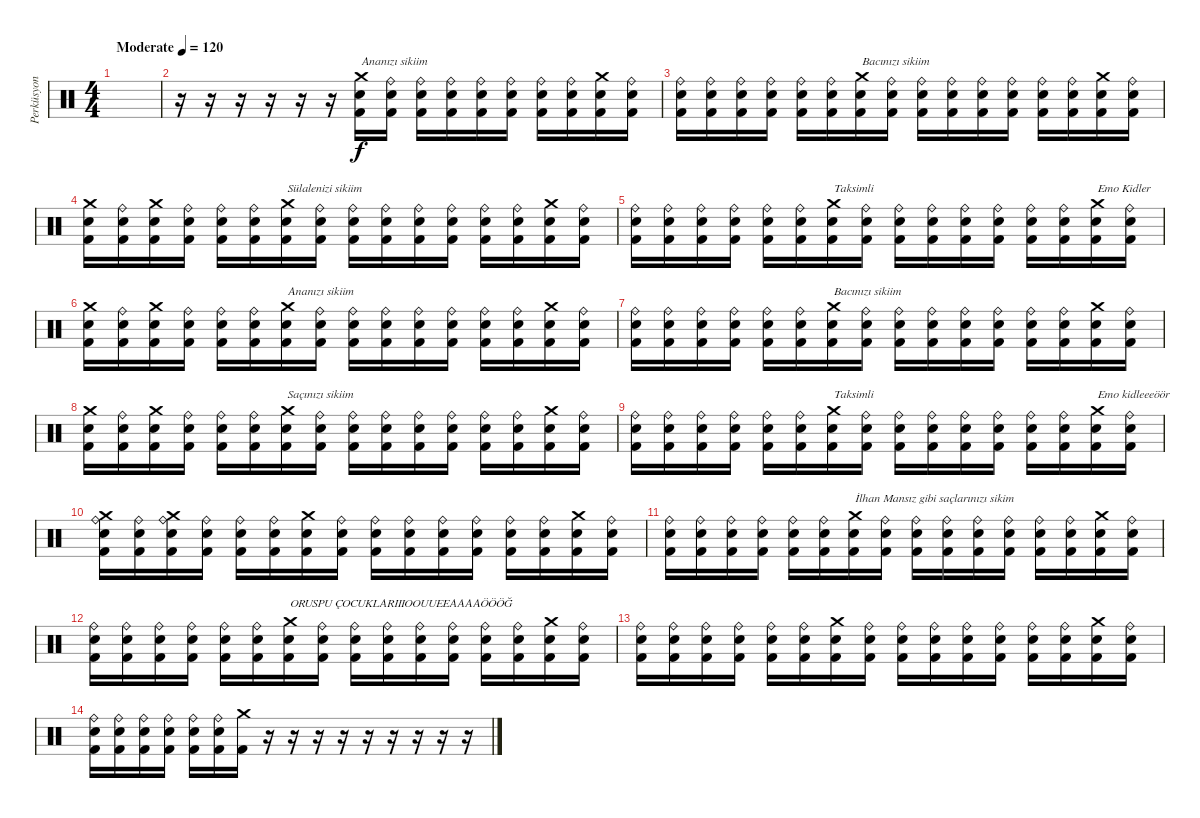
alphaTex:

\track ("Perküsyon" "Perküsyon") {instrument percussion}
\staff {score}
\articulation defaults
\ts (4 4)
\tempo (120 "Moderate")
\clef neutral
\ks c
|
r.16 r.16 r.16 r.16 r.16 r.16 ("Crash medium (hit)" "Electric Snare (hit)" "Kick (hit) 2").16{txt "Ananızı sikiim"} ("Ride (bell)" "Electric Snare (hit)" "Kick (hit) 2").16 ("Ride (bell)" "Electric Snare (hit)" "Kick (hit) 2").16 ("Ride (bell)" "Electric Snare (hit)" "Kick (hit) 2").16 ("Ride (bell)" "Electric Snare (hit)" "Kick (hit) 2").16 ("Ride (bell)" "Electric Snare (hit)" "Kick (hit) 2").16 ("Ride (bell)" "Electric Snare (hit)" "Kick (hit) 2").16 ("Ride (bell)" "Electric Snare (hit)" "Kick (hit) 2").16 ("Crash medium (hit)" "Electric Snare (hit)" "Kick (hit) 2").16 ("Ride (bell)" "Electric Snare (hit)" "Kick (hit) 2").16 |
("Ride (bell)" "Electric Snare (hit)" "Kick (hit) 2").16 ("Ride (bell)" "Electric Snare (hit)" "Kick (hit) 2").16 ("Ride (bell)" "Electric Snare (hit)" "Kick (hit) 2").16 ("Ride (bell)" "Electric Snare (hit)" "Kick (hit) 2").16 ("Ride (bell)" "Electric Snare (hit)" "Kick (hit) 2").16 ("Ride (bell)" "Electric Snare (hit)" "Kick (hit) 2").16 ("Crash medium (hit)" "Electric Snare (hit)" "Kick (hit) 2").16{txt "Bacınızı sikiim"} ("Ride (bell)" "Electric Snare (hit)" "Kick (hit) 2").16 ("Ride (bell)" "Electric Snare (hit)" "Kick (hit) 2").16 ("Ride (bell)" "Electric Snare (hit)" "Kick (hit) 2").16 ("Ride (bell)" "Electric Snare (hit)" "Kick (hit) 2").16 ("Ride (bell)" "Electric Snare (hit)" "Kick (hit) 2").16 ("Ride (bell)" "Electric Snare (hit)" "Kick (hit) 2").16 ("Ride (bell)" "Electric Snare (hit)" "Kick (hit) 2").16 ("Crash medium (hit)" "Electric Snare (hit)" "Kick (hit) 2").16 ("Ride (bell)" "Electric Snare (hit)" "Kick (hit) 2").16 |
("Crash medium (hit)" "Electric Snare (hit)" "Kick (hit) 2").16 ("Ride (bell)" "Electric Snare (hit)" "Kick (hit) 2").16 ("Crash medium (hit)" "Electric Snare (hit)" "Kick (hit) 2").16 ("Ride (bell)" "Electric Snare (hit)" "Kick (hit) 2").16 ("Ride (bell)" "Electric Snare (hit)" "Kick (hit) 2").16 ("Ride (bell)" "Electric Snare (hit)" "Kick (hit) 2").16 ("Crash medium (hit)" "Electric Snare (hit)" "Kick (hit) 2").16{txt "Sülalenizi sikiim"} ("Ride (bell)" "Electric Snare (hit)" "Kick (hit) 2").16 ("Ride (bell)" "Electric Snare (hit)" "Kick (hit) 2").16 ("Ride (bell)" "Electric Snare (hit)" "Kick (hit) 2").16 ("Ride (bell)" "Electric Snare (hit)" "Kick (hit) 2").16 ("Ride (bell)" "Electric Snare (hit)" "Kick (hit) 2").16 ("Ride (bell)" "Electric Snare (hit)" "Kick (hit) 2").16 ("Ride (bell)" "Electric Snare (hit)" "Kick (hit) 2").16 ("Crash medium (hit)" "Electric Snare (hit)" "Kick (hit) 2").16 ("Ride (bell)" "Electric Snare (hit)" "Kick (hit) 2").16 |
("Ride (bell)" "Electric Snare (hit)" "Kick (hit) 2").16 ("Ride (bell)" "Electric Snare (hit)" "Kick (hit) 2").16 ("Ride (bell)" "Electric Snare (hit)" "Kick (hit) 2").16 ("Ride (bell)" "Electric Snare (hit)" "Kick (hit) 2").16 ("Ride (bell)" "Electric Snare (hit)" "Kick (hit) 2").16 ("Ride (bell)" "Electric Snare (hit)" "Kick (hit) 2").16 ("Crash medium (hit)" "Electric Snare (hit)" "Kick (hit) 2").16{txt "Taksimli"} ("Ride (bell)" "Electric Snare (hit)" "Kick (hit) 2").16 ("Ride (bell)" "Electric Snare (hit)" "Kick (hit) 2").16 ("Ride (bell)" "Electric Snare (hit)" "Kick (hit) 2").16 ("Ride (bell)" "Electric Snare (hit)" "Kick (hit) 2").16 ("Ride (bell)" "Electric Snare (hit)" "Kick (hit) 2").16 ("Ride (bell)" "Electric Snare (hit)" "Kick (hit) 2").16 ("Ride (bell)" "Electric Snare (hit)" "Kick (hit) 2").16 ("Crash medium (hit)" "Electric Snare (hit)" "Kick (hit) 2").16{txt "Emo Kidler"} ("Ride (bell)" "Electric Snare (hit)" "Kick (hit) 2").16 |
("Crash medium (hit)" "Electric Snare (hit)" "Kick (hit) 2").16 ("Ride (bell)" "Electric Snare (hit)" "Kick (hit) 2").16 ("Crash medium (hit)" "Electric Snare (hit)" "Kick (hit) 2").16 ("Ride (bell)" "Electric Snare (hit)" "Kick (hit) 2").16 ("Ride (bell)" "Electric Snare (hit)" "Kick (hit) 2").16 ("Ride (bell)" "Electric Snare (hit)" "Kick (hit) 2").16 ("Crash medium (hit)" "Electric Snare (hit)" "Kick (hit) 2").16{txt "Ananızı sikiim"} ("Ride (bell)" "Electric Snare (hit)" "Kick (hit) 2").16 ("Ride (bell)" "Electric Snare (hit)" "Kick (hit) 2").16 ("Ride (bell)" "Electric Snare (hit)" "Kick (hit) 2").16 ("Ride (bell)" "Electric Snare (hit)" "Kick (hit) 2").16 ("Ride (bell)" "Electric Snare (hit)" "Kick (hit) 2").16 ("Ride (bell)" "Electric Snare (hit)" "Kick (hit) 2").16 ("Ride (bell)" "Electric Snare (hit)" "Kick (hit) 2").16 ("Crash medium (hit)" "Electric Snare (hit)" "Kick (hit) 2").16 ("Ride (bell)" "Electric Snare (hit)" "Kick (hit) 2").16 |
("Ride (bell)" "Electric Snare (hit)" "Kick (hit) 2").16 ("Ride (bell)" "Electric Snare (hit)" "Kick (hit) 2").16 ("Ride (bell)" "Electric Snare (hit)" "Kick (hit) 2").16 ("Ride (bell)" "Electric Snare (hit)" "Kick (hit) 2").16 ("Ride (bell)" "Electric Snare (hit)" "Kick (hit) 2").16 ("Ride (bell)" "Electric Snare (hit)" "Kick (hit) 2").16 ("Crash medium (hit)" "Electric Snare (hit)" "Kick (hit) 2").16{txt "Bacınızı sikiim"} ("Ride (bell)" "Electric Snare (hit)" "Kick (hit) 2").16 ("Ride (bell)" "Electric Snare (hit)" "Kick (hit) 2").16 ("Ride (bell)" "Electric Snare (hit)" "Kick (hit) 2").16 ("Ride (bell)" "Electric Snare (hit)" "Kick (hit) 2").16 ("Ride (bell)" "Electric Snare (hit)" "Kick (hit) 2").16 ("Ride (bell)" "Electric Snare (hit)" "Kick (hit) 2").16 ("Ride (bell)" "Electric Snare (hit)" "Kick (hit) 2").16 ("Crash medium (hit)" "Electric Snare (hit)" "Kick (hit) 2").16 ("Ride (bell)" "Electric Snare (hit)" "Kick (hit) 2").16 |
("Crash medium (hit)" "Electric Snare (hit)" "Kick (hit) 2").16 ("Ride (bell)" "Electric Snare (hit)" "Kick (hit) 2").16 ("Crash medium (hit)" "Electric Snare (hit)" "Kick (hit) 2").16 ("Ride (bell)" "Electric Snare (hit)" "Kick (hit) 2").16 ("Ride (bell)" "Electric Snare (hit)" "Kick (hit) 2").16 ("Ride (bell)" "Electric Snare (hit)" "Kick (hit) 2").16 ("Crash medium (hit)" "Electric Snare (hit)" "Kick (hit) 2").16{txt "Saçınızı sikiim"} ("Ride (bell)" "Electric Snare (hit)" "Kick (hit) 2").16 ("Ride (bell)" "Electric Snare (hit)" "Kick (hit) 2").16 ("Ride (bell)" "Electric Snare (hit)" "Kick (hit) 2").16 ("Ride (bell)" "Electric Snare (hit)" "Kick (hit) 2").16 ("Ride (bell)" "Electric Snare (hit)" "Kick (hit) 2").16 ("Ride (bell)" "Electric Snare (hit)" "Kick (hit) 2").16 ("Ride (bell)" "Electric Snare (hit)" "Kick (hit) 2").16 ("Crash medium (hit)" "Electric Snare (hit)" "Kick (hit) 2").16 ("Ride (bell)" "Electric Snare (hit)" "Kick (hit) 2").16 |
("Ride (bell)" "Electric Snare (hit)" "Kick (hit) 2").16 ("Ride (bell)" "Electric Snare (hit)" "Kick (hit) 2").16 ("Ride (bell)" "Electric Snare (hit)" "Kick (hit) 2").16 ("Ride (bell)" "Electric Snare (hit)" "Kick (hit) 2").16 ("Ride (bell)" "Electric Snare (hit)" "Kick (hit) 2").16 ("Ride (bell)" "Electric Snare (hit)" "Kick (hit) 2").16 ("Crash medium (hit)" "Electric Snare (hit)" "Kick (hit) 2").16{txt "Taksimli"} ("Ride (bell)" "Electric Snare (hit)" "Kick (hit) 2").16 ("Ride (bell)" "Electric Snare (hit)" "Kick (hit) 2").16 ("Ride (bell)" "Electric Snare (hit)" "Kick (hit) 2").16 ("Ride (bell)" "Electric Snare (hit)" "Kick (hit) 2").16 ("Ride (bell)" "Electric Snare (hit)" "Kick (hit) 2").16 ("Ride (bell)" "Electric Snare (hit)" "Kick (hit) 2").16 ("Ride (bell)" "Electric Snare (hit)" "Kick (hit) 2").16 ("Crash medium (hit)" "Electric Snare (hit)" "Kick (hit) 2").16{txt "Emo kidleeeöör"} ("Ride (bell)" "Electric Snare (hit)" "Kick (hit) 2").16 |
("Crash medium (hit)" "Ride (bell)" "Electric Snare (hit)" "Kick (hit) 2").16 ("Ride (bell)" "Electric Snare (hit)" "Kick (hit) 2").16 ("Crash medium (hit)" "Ride (bell)" "Electric Snare (hit)" "Kick (hit) 2").16 ("Ride (bell)" "Electric Snare (hit)" "Kick (hit) 2").16 ("Ride (bell)" "Electric Snare (hit)" "Kick (hit) 2").16 ("Ride (bell)" "Electric Snare (hit)" "Kick (hit) 2").16 ("Crash medium (hit)" "Electric Snare (hit)" "Kick (hit) 2").16 ("Ride (bell)" "Electric Snare (hit)" "Kick (hit) 2").16 ("Ride (bell)" "Electric Snare (hit)" "Kick (hit) 2").16 ("Ride (bell)" "Electric Snare (hit)" "Kick (hit) 2").16 ("Ride (bell)" "Electric Snare (hit)" "Kick (hit) 2").16 ("Ride (bell)" "Electric Snare (hit)" "Kick (hit) 2").16 ("Ride (bell)" "Electric Snare (hit)" "Kick (hit) 2").16 ("Ride (bell)" "Electric Snare (hit)" "Kick (hit) 2").16 ("Crash medium (hit)" "Electric Snare (hit)" "Kick (hit) 2").16 ("Ride (bell)" "Electric Snare (hit)" "Kick (hit) 2").16 |
("Ride (bell)" "Electric Snare (hit)" "Kick (hit) 2").16 ("Ride (bell)" "Electric Snare (hit)" "Kick (hit) 2").16 ("Ride (bell)" "Electric Snare (hit)" "Kick (hit) 2").16 ("Ride (bell)" "Electric Snare (hit)" "Kick (hit) 2").16 ("Ride (bell)" "Electric Snare (hit)" "Kick (hit) 2").16 ("Ride (bell)" "Electric Snare (hit)" "Kick (hit) 2").16 ("Crash medium (hit)" "Electric Snare (hit)" "Kick (hit) 2").16{txt "İlhan Mansız gibi saçlarınızı sikim"} ("Ride (bell)" "Electric Snare (hit)" "Kick (hit) 2").16 ("Ride (bell)" "Electric Snare (hit)" "Kick (hit) 2").16 ("Ride (bell)" "Electric Snare (hit)" "Kick (hit) 2").16 ("Ride (bell)" "Electric Snare (hit)" "Kick (hit) 2").16 ("Ride (bell)" "Electric Snare (hit)" "Kick (hit) 2").16 ("Ride (bell)" "Electric Snare (hit)" "Kick (hit) 2").16 ("Ride (bell)" "Electric Snare (hit)" "Kick (hit) 2").16 ("Crash medium (hit)" "Electric Snare (hit)" "Kick (hit) 2").16 ("Ride (bell)" "Electric Snare (hit)" "Kick (hit) 2").16 |
("Ride (bell)" "Electric Snare (hit)" "Kick (hit) 2").16 ("Ride (bell)" "Electric Snare (hit)" "Kick (hit) 2").16 ("Ride (bell)" "Electric Snare (hit)" "Kick (hit) 2").16 ("Ride (bell)" "Electric Snare (hit)" "Kick (hit) 2").16 ("Ride (bell)" "Electric Snare (hit)" "Kick (hit) 2").16 ("Ride (bell)" "Electric Snare (hit)" "Kick (hit) 2").16 ("Crash medium (hit)" "Electric Snare (hit)" "Kick (hit) 2").16{txt "ORUSPU ÇOCUKLARIIIOOUUEEAAAAÖÖÖĞ"} ("Ride (bell)" "Electric Snare (hit)" "Kick (hit) 2").16 ("Ride (bell)" "Electric Snare (hit)" "Kick (hit) 2").16 ("Ride (bell)" "Electric Snare (hit)" "Kick (hit) 2").16 ("Ride (bell)" "Electric Snare (hit)" "Kick (hit) 2").16 ("Ride (bell)" "Electric Snare (hit)" "Kick (hit) 2").16 ("Ride (bell)" "Electric Snare (hit)" "Kick (hit) 2").16 ("Ride (bell)" "Electric Snare (hit)" "Kick (hit) 2").16 ("Crash medium (hit)" "Electric Snare (hit)" "Kick (hit) 2").16 ("Ride (bell)" "Electric Snare (hit)" "Kick (hit) 2").16 |
("Ride (bell)" "Electric Snare (hit)" "Kick (hit) 2").16 ("Ride (bell)" "Electric Snare (hit)" "Kick (hit) 2").16 ("Ride (bell)" "Electric Snare (hit)" "Kick (hit) 2").16 ("Ride (bell)" "Electric Snare (hit)" "Kick (hit) 2").16 ("Ride (bell)" "Electric Snare (hit)" "Kick (hit) 2").16 ("Ride (bell)" "Electric Snare (hit)" "Kick (hit) 2").16 ("Crash medium (hit)" "Electric Snare (hit)" "Kick (hit) 2").16 ("Ride (bell)" "Electric Snare (hit)" "Kick (hit) 2").16 ("Ride (bell)" "Electric Snare (hit)" "Kick (hit) 2").16 ("Ride (bell)" "Electric Snare (hit)" "Kick (hit) 2").16 ("Ride (bell)" "Electric Snare (hit)" "Kick (hit) 2").16 ("Ride (bell)" "Electric Snare (hit)" "Kick (hit) 2").16 ("Ride (bell)" "Electric Snare (hit)" "Kick (hit) 2").16 ("Ride (bell)" "Electric Snare (hit)" "Kick (hit) 2").16 ("Crash medium (hit)" "Electric Snare (hit)" "Kick (hit) 2").16 ("Ride (bell)" "Electric Snare (hit)" "Kick (hit) 2").16 |
("Ride (bell)" "Electric Snare (hit)" "Kick (hit) 2").16 ("Ride (bell)" "Electric Snare (hit)" "Kick (hit) 2").16 ("Ride (bell)" "Electric Snare (hit)" "Kick (hit) 2").16 ("Ride (bell)" "Electric Snare (hit)" "Kick (hit) 2").16 ("Ride (bell)" "Electric Snare (hit)" "Kick (hit) 2").16 ("Ride (bell)" "Electric Snare (hit)" "Kick (hit) 2").16 ("Crash medium (hit)" "Kick (hit) 2").16 r.16 r.16 r.16 r.16 r.16 r.16 r.16 r.16 r.16
